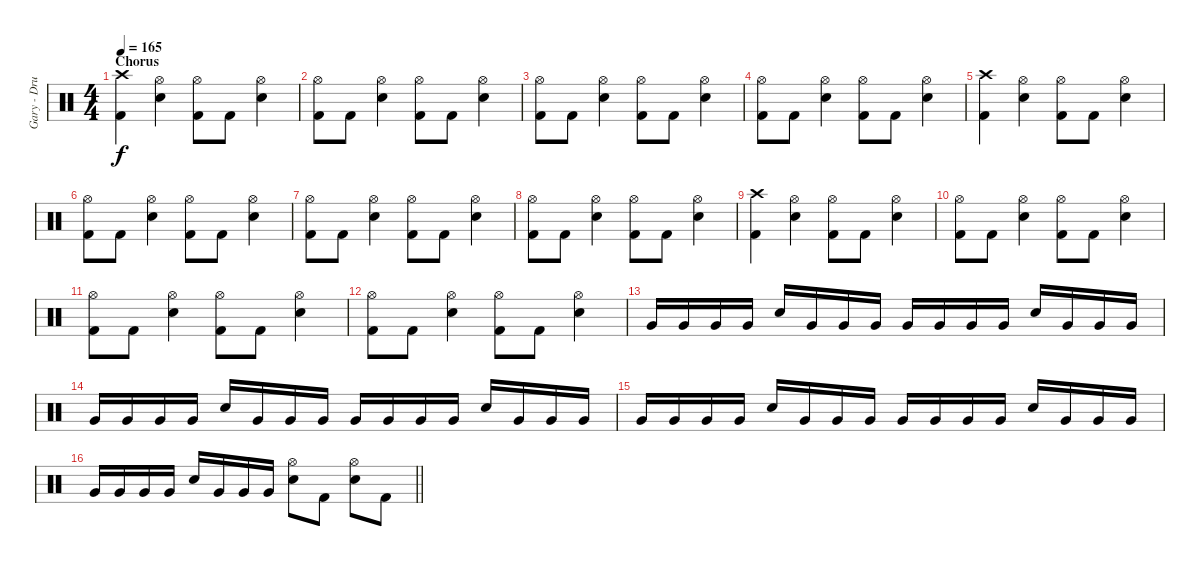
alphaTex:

\track ("Gary - Drums" "Gary - Dru") {instrument percussion}
\staff {score}
\articulation defaults
\ts (4 4)
\section ("" "Chorus")
\tempo 165
\clef neutral
\ks c
("Crash high (hit)" "Kick (hit) 2").4{dy f} ("Hi-Hat (open)" "Snare (hit) 2").4 ("Hi-Hat (open)" "Kick (hit) 2").8 "Kick (hit) 2".8 ("Hi-Hat (open)" "Snare (hit) 2").4 |
("Hi-Hat (open)" "Kick (hit) 2").8 "Kick (hit) 2".8 ("Hi-Hat (open)" "Snare (hit) 2").4 ("Hi-Hat (open)" "Kick (hit) 2").8 "Kick (hit) 2".8 ("Hi-Hat (open)" "Snare (hit) 2").4 |
("Hi-Hat (open)" "Kick (hit) 2").8 "Kick (hit) 2".8 ("Hi-Hat (open)" "Snare (hit) 2").4 ("Hi-Hat (open)" "Kick (hit) 2").8 "Kick (hit) 2".8 ("Hi-Hat (open)" "Snare (hit) 2").4 |
("Hi-Hat (open)" "Kick (hit) 2").8 "Kick (hit) 2".8 ("Hi-Hat (open)" "Snare (hit) 2").4 ("Hi-Hat (open)" "Kick (hit) 2").8 "Kick (hit) 2".8 ("Hi-Hat (open)" "Snare (hit) 2").4 |
("Crash high (hit)" "Kick (hit) 2").4 ("Hi-Hat (open)" "Snare (hit) 2").4 ("Hi-Hat (open)" "Kick (hit) 2").8 "Kick (hit) 2".8 ("Hi-Hat (open)" "Snare (hit) 2").4 |
("Hi-Hat (open)" "Kick (hit) 2").8 "Kick (hit) 2".8 ("Hi-Hat (open)" "Snare (hit) 2").4 ("Hi-Hat (open)" "Kick (hit) 2").8 "Kick (hit) 2".8 ("Hi-Hat (open)" "Snare (hit) 2").4 |
("Hi-Hat (open)" "Kick (hit) 2").8 "Kick (hit) 2".8 ("Hi-Hat (open)" "Snare (hit) 2").4 ("Hi-Hat (open)" "Kick (hit) 2").8 "Kick (hit) 2".8 ("Hi-Hat (open)" "Snare (hit) 2").4 |
("Hi-Hat (open)" "Kick (hit) 2").8 "Kick (hit) 2".8 ("Hi-Hat (open)" "Snare (hit) 2").4 ("Hi-Hat (open)" "Kick (hit) 2").8 "Kick (hit) 2".8 ("Hi-Hat (open)" "Snare (hit) 2").4 |
("Crash high (hit)" "Kick (hit) 2").4 ("Hi-Hat (open)" "Snare (hit) 2").4 ("Hi-Hat (open)" "Kick (hit) 2").8 "Kick (hit) 2".8 ("Hi-Hat (open)" "Snare (hit) 2").4 |
("Hi-Hat (open)" "Kick (hit) 2").8 "Kick (hit) 2".8 ("Hi-Hat (open)" "Snare (hit) 2").4 ("Hi-Hat (open)" "Kick (hit) 2").8 "Kick (hit) 2".8 ("Hi-Hat (open)" "Snare (hit) 2").4 |
("Hi-Hat (open)" "Kick (hit) 2").8 "Kick (hit) 2".8 ("Hi-Hat (open)" "Snare (hit) 2").4 ("Hi-Hat (open)" "Kick (hit) 2").8 "Kick (hit) 2".8 ("Hi-Hat (open)" "Snare (hit) 2").4 |
("Hi-Hat (open)" "Kick (hit) 2").8 "Kick (hit) 2".8 ("Hi-Hat (open)" "Snare (hit) 2").4 ("Hi-Hat (open)" "Kick (hit) 2").8 "Kick (hit) 2".8 ("Hi-Hat (open)" "Snare (hit) 2").4 |
"Very Low Tom (hit)".16 "Very Low Tom (hit)".16 "Very Low Tom (hit)".16 "Very Low Tom (hit)".16 "Snare (hit) 2".16 "Very Low Tom (hit)".16 "Very Low Tom (hit)".16 "Very Low Tom (hit)".16 "Very Low Tom (hit)".16 "Very Low Tom (hit)".16 "Very Low Tom (hit)".16 "Very Low Tom (hit)".16 "Snare (hit) 2".16 "Very Low Tom (hit)".16 "Very Low Tom (hit)".16 "Very Low Tom (hit)".16 |
"Very Low Tom (hit)".16 "Very Low Tom (hit)".16 "Very Low Tom (hit)".16 "Very Low Tom (hit)".16 "Snare (hit) 2".16 "Very Low Tom (hit)".16 "Very Low Tom (hit)".16 "Very Low Tom (hit)".16 "Very Low Tom (hit)".16 "Very Low Tom (hit)".16 "Very Low Tom (hit)".16 "Very Low Tom (hit)".16 "Snare (hit) 2".16 "Very Low Tom (hit)".16 "Very Low Tom (hit)".16 "Very Low Tom (hit)".16 |
"Very Low Tom (hit)".16 "Very Low Tom (hit)".16 "Very Low Tom (hit)".16 "Very Low Tom (hit)".16 "Snare (hit) 2".16 "Very Low Tom (hit)".16 "Very Low Tom (hit)".16 "Very Low Tom (hit)".16 "Very Low Tom (hit)".16 "Very Low Tom (hit)".16 "Very Low Tom (hit)".16 "Very Low Tom (hit)".16 "Snare (hit) 2".16 "Very Low Tom (hit)".16 "Very Low Tom (hit)".16 "Very Low Tom (hit)".16 |
\barLineRight lightlight "Very Low Tom (hit)".16 "Very Low Tom (hit)".16 "Very Low Tom (hit)".16 "Very Low Tom (hit)".16 "Snare (hit) 2".16 "Very Low Tom (hit)".16 "Very Low Tom (hit)".16 "Very Low Tom (hit)".16
("Hi-Hat (open)" "Snare (hit) 2").8 "Kick (hit) 2".8 ("Hi-Hat (open)" "Snare (hit) 2").8 "Kick (hit) 2".8
